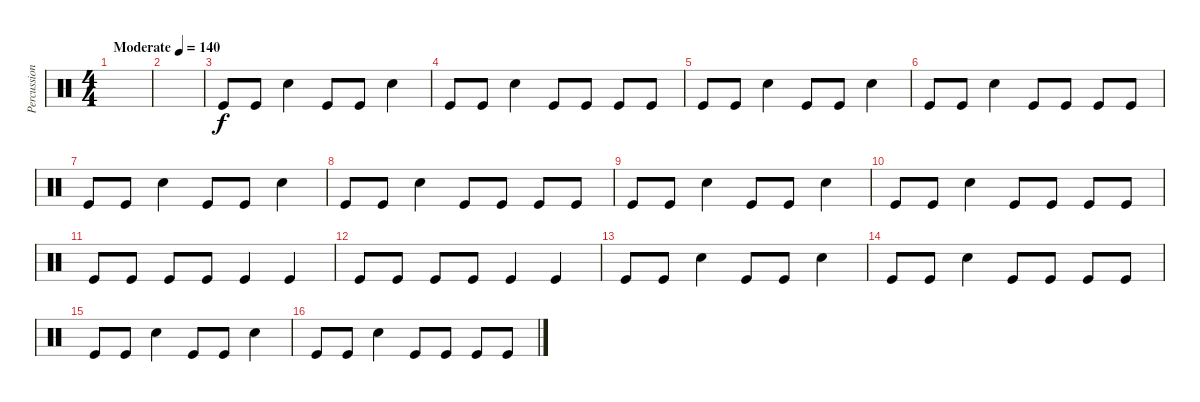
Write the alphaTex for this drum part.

\track ("Percussion" "Percussion") {instrument percussion}
\staff {score}
\articulation defaults
\ts (4 4)
\tempo (140 "Moderate")
\clef neutral
\ks c
|
|
"Kick (hit)".8 "Kick (hit)".8 "Snare (hit) 2".4 "Kick (hit)".8 "Kick (hit)".8 "Snare (hit) 2".4 |
"Kick (hit)".8 "Kick (hit)".8 "Snare (hit) 2".4 "Kick (hit)".8 "Kick (hit)".8 "Kick (hit)".8 "Kick (hit)".8 |
"Kick (hit)".8 "Kick (hit)".8 "Snare (hit) 2".4 "Kick (hit)".8 "Kick (hit)".8 "Snare (hit) 2".4 |
"Kick (hit)".8 "Kick (hit)".8 "Snare (hit) 2".4 "Kick (hit)".8 "Kick (hit)".8 "Kick (hit)".8 "Kick (hit)".8 |
"Kick (hit)".8 "Kick (hit)".8 "Snare (hit) 2".4 "Kick (hit)".8 "Kick (hit)".8 "Snare (hit) 2".4 |
"Kick (hit)".8 "Kick (hit)".8 "Snare (hit) 2".4 "Kick (hit)".8 "Kick (hit)".8 "Kick (hit)".8 "Kick (hit)".8 |
"Kick (hit)".8 "Kick (hit)".8 "Snare (hit) 2".4 "Kick (hit)".8 "Kick (hit)".8 "Snare (hit) 2".4 |
"Kick (hit)".8 "Kick (hit)".8 "Snare (hit) 2".4 "Kick (hit)".8 "Kick (hit)".8 "Kick (hit)".8 "Kick (hit)".8 |
"Kick (hit)".8 "Kick (hit)".8 "Kick (hit)".8 "Kick (hit)".8 "Kick (hit)".4 "Kick (hit)".4 |
"Kick (hit)".8 "Kick (hit)".8 "Kick (hit)".8 "Kick (hit)".8 "Kick (hit)".4 "Kick (hit)".4 |
"Kick (hit)".8 "Kick (hit)".8 "Snare (hit) 2".4 "Kick (hit)".8 "Kick (hit)".8 "Snare (hit) 2".4 |
"Kick (hit)".8 "Kick (hit)".8 "Snare (hit) 2".4 "Kick (hit)".8 "Kick (hit)".8 "Kick (hit)".8 "Kick (hit)".8 |
"Kick (hit)".8 "Kick (hit)".8 "Snare (hit) 2".4 "Kick (hit)".8 "Kick (hit)".8 "Snare (hit) 2".4 |
"Kick (hit)".8 "Kick (hit)".8 "Snare (hit) 2".4 "Kick (hit)".8 "Kick (hit)".8 "Kick (hit)".8 "Kick (hit)".8
